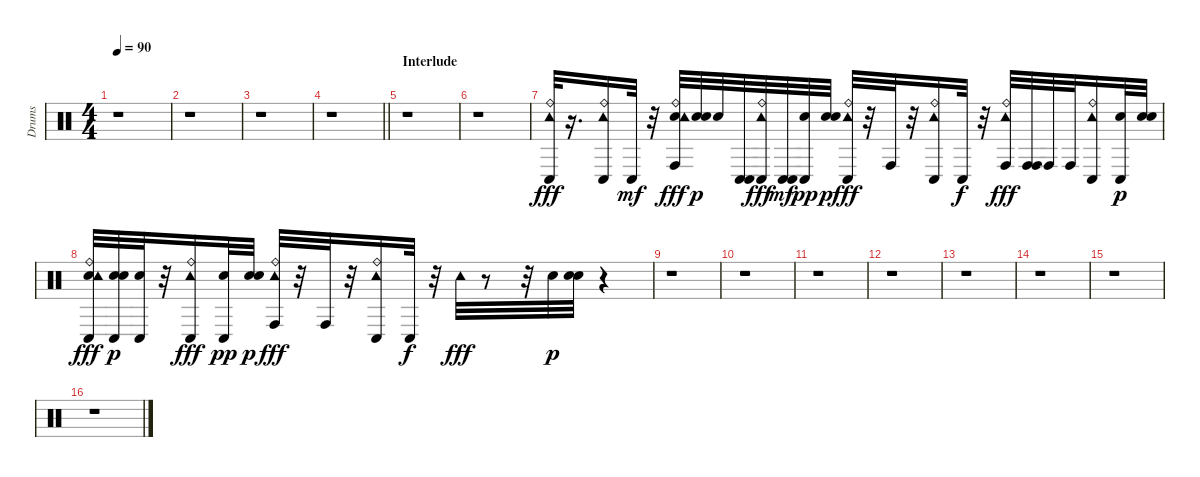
\track ("Drums" "Drums") {instrument percussion}
\staff {score}
\articulation defaults
\ts (4 4)
\tempo 90
\clef neutral
\ks c
r.1{dy fff} |
r.1 |
r.1 |
\barLineRight lightlight
r.1 |
\section ("" "Interlude")
r.1 |
r.1 |
("Ride (bell)" "Conga low (hit)" "Tambourine (hit)").32 r.16{d} ("Ride (bell)" "Conga low (hit)" "Tambourine (hit)").16 "Conga low (hit)".32{dy mf} r.32 ("Ride (bell)" "Conga high (hit)" "Electric Snare (hit)" "Tambourine (hit)").32{dy fff} ("Electric Snare (hit)" "Electric Snare (hit)").32{dy p} "Electric Snare (hit)".32 ("Conga low (hit)" "Conga low (hit)").32 ("Ride (bell)" "Conga low (hit)" "Tambourine (hit)").32{dy fff} ("Conga low (hit)" "Conga low (hit)").32{dy mf} ("Conga low (hit)" "Electric Snare (hit)").32{dy pp} ("Electric Snare (hit)" "Electric Snare (hit)").32{dy p} ("Ride (bell)" "Conga low (hit)" "Tambourine (hit)").32{dy fff} r.32 "Conga high (hit)".32 r.32 ("Ride (bell)" "Conga low (hit)" "Tambourine (hit)").16 "Conga low (hit)".32{dy f} r.32 ("Ride (bell)" "Conga high (hit)" "Tambourine (hit)").32{dy fff} ("Conga high (hit)" "Conga high (hit)").32 "Conga high (hit)".32 "Conga high (hit)".32 ("Ride (bell)" "Conga low (hit)" "Tambourine (hit)").16 ("Conga low (hit)" "Electric Snare (hit)").32{dy p} ("Electric Snare (hit)" "Electric Snare (hit)").32 |
("Ride (bell)" "Conga low (hit)" "Electric Snare (hit)" "Tambourine (hit)").32{dy fff} ("Electric Snare (hit)" "Conga low (hit)" "Electric Snare (hit)").32{dy p} ("Conga low (hit)" "Electric Snare (hit)").32 r.32 ("Ride (bell)" "Conga low (hit)" "Tambourine (hit)").16{dy fff} ("Conga low (hit)" "Electric Snare (hit)").32{dy pp} ("Electric Snare (hit)" "Electric Snare (hit)").32{dy p} ("Ride (bell)" "Conga high (hit)" "Tambourine (hit)").32{dy fff} r.32 "Conga high (hit)".32 r.32 ("Ride (bell)" "Conga low (hit)" "Tambourine (hit)").16 "Conga low (hit)".32{dy f} r.32 "Tambourine (hit)".32{dy fff} r.8 r.32 "Electric Snare (hit)".32{dy p} ("Electric Snare (hit)" "Electric Snare (hit)").32 r.4 |
r.1 |
r.1 |
r.1 |
r.1 |
r.1 |
r.1 |
r.1 |
r.1
